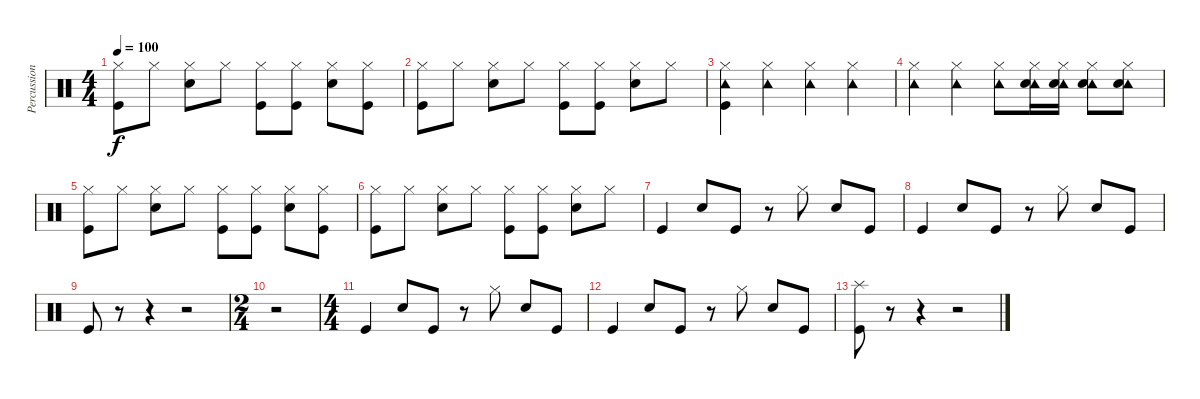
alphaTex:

\track ("Percussion" "Percussion") {instrument percussion}
\staff {score}
\articulation defaults
\ts (4 4)
\tempo 100
\clef neutral
\ks c
("Hi-Hat (closed)" "Kick (hit)").8{dy f} "Hi-Hat (closed)".8 ("Hi-Hat (closed)" "Snare (hit) 2").8 "Hi-Hat (closed)".8 ("Hi-Hat (closed)" "Kick (hit)").8 ("Hi-Hat (closed)" "Kick (hit)").8 ("Hi-Hat (closed)" "Snare (hit) 2").8 ("Hi-Hat (closed)" "Kick (hit)").8 |
("Hi-Hat (closed)" "Kick (hit)").8 "Hi-Hat (closed)".8 ("Hi-Hat (closed)" "Snare (hit) 2").8 "Hi-Hat (closed)".8 ("Hi-Hat (closed)" "Kick (hit)").8 ("Hi-Hat (closed)" "Kick (hit)").8 ("Hi-Hat (closed)" "Snare (hit) 2").8 "Hi-Hat (closed)".8 |
("Hi-Hat (closed)" "Tambourine (hit)" "Kick (hit)").4 ("Hi-Hat (closed)" "Tambourine (hit)").4 ("Hi-Hat (closed)" "Tambourine (hit)").4 ("Hi-Hat (closed)" "Tambourine (hit)").4 |
("Hi-Hat (closed)" "Tambourine (hit)").4 ("Hi-Hat (closed)" "Tambourine (hit)").4 ("Hi-Hat (closed)" "Tambourine (hit)").8 ("Hi-Hat (closed)" "Tambourine (hit)" "Snare (hit) 2").16 ("Hi-Hat (closed)" "Tambourine (hit)" "Snare (hit) 2").16 ("Hi-Hat (closed)" "Tambourine (hit)" "Snare (hit) 2").8 ("Hi-Hat (closed)" "Tambourine (hit)" "Snare (hit) 2").8 |
("Hi-Hat (closed)" "Kick (hit)").8 "Hi-Hat (closed)".8 ("Hi-Hat (closed)" "Snare (hit) 2").8 "Hi-Hat (closed)".8 ("Hi-Hat (closed)" "Kick (hit)").8 ("Hi-Hat (closed)" "Kick (hit)").8 ("Hi-Hat (closed)" "Snare (hit) 2").8 ("Hi-Hat (closed)" "Kick (hit)").8 |
("Hi-Hat (closed)" "Kick (hit)").8 "Hi-Hat (closed)".8 ("Hi-Hat (closed)" "Snare (hit) 2").8 "Hi-Hat (closed)".8 ("Hi-Hat (closed)" "Kick (hit)").8 ("Hi-Hat (closed)" "Kick (hit)").8 ("Hi-Hat (closed)" "Snare (hit) 2").8 "Hi-Hat (closed)".8 |
"Kick (hit)".4 "Snare (hit) 2".8 "Kick (hit)".8 r.8 "Hi-Hat (closed)".8 "Snare (hit) 2".8 "Kick (hit)".8 |
"Kick (hit)".4 "Snare (hit) 2".8 "Kick (hit)".8 r.8 "Hi-Hat (closed)".8 "Snare (hit) 2".8 "Kick (hit)".8 |
"Kick (hit)".8 r.8 r.4 r.2 |
\ts (2 4)
r.2 |
\ts (4 4)
"Kick (hit)".4 "Snare (hit) 2".8 "Kick (hit)".8 r.8 "Hi-Hat (closed)".8 "Snare (hit) 2".8 "Kick (hit)".8 |
"Kick (hit)".4 "Snare (hit) 2".8 "Kick (hit)".8 r.8 "Hi-Hat (closed)".8 "Snare (hit) 2".8 "Kick (hit)".8 |
("Splash (hit)" "Kick (hit)").8 r.8 r.4 r.2
